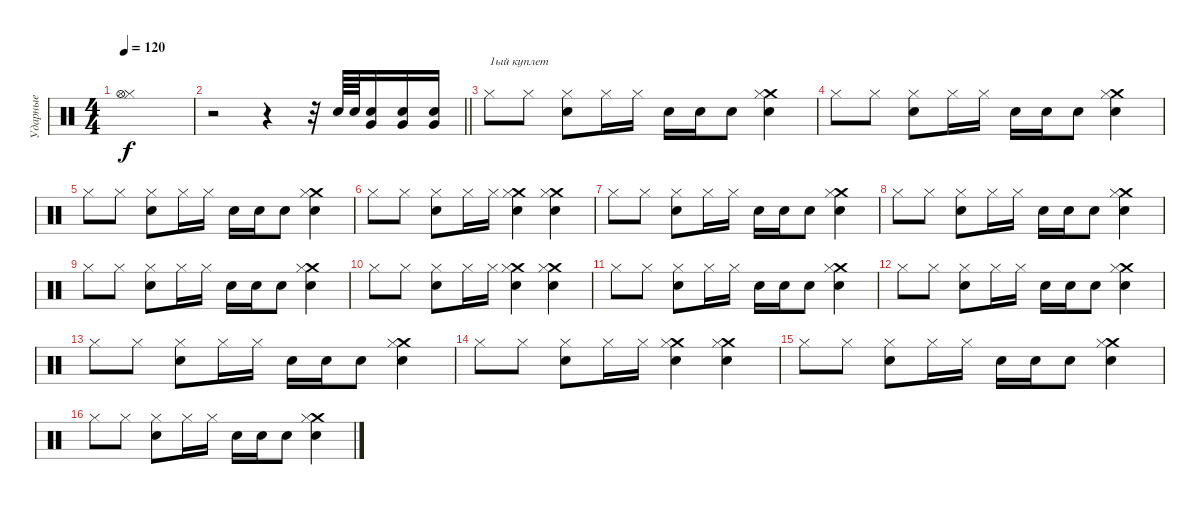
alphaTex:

\track ("Ударные" "Ударные") {instrument percussion}
\staff {score}
\articulation defaults
\ts (4 4)
\tempo 120
\clef neutral
\ks c
("Hi-Hat (closed)" "Hi-Hat (open)").1{dy f} |
\barLineRight lightlight
r.2 r.4 r.32 "Electric Snare (hit)".64 "Electric Snare (hit)".64 ("Electric Snare (hit)" "Very Low Tom (hit)").16 ("Electric Snare (hit)" "Very Low Tom (hit)").16 ("Electric Snare (hit)" "Very Low Tom (hit)").16 |
"Hi-Hat (closed)".8{txt "1ый куплет"} "Hi-Hat (closed)".8 ("Hi-Hat (closed)" "Electric Snare (hit)").8 "Hi-Hat (closed)".16 "Hi-Hat (closed)".16 "Electric Snare (hit)".16 "Electric Snare (hit)".16 "Electric Snare (hit)".8 ("Crash medium (hit)" "Electric Snare (hit)" "Hi-Hat (closed)").4 |
"Hi-Hat (closed)".8 "Hi-Hat (closed)".8 ("Hi-Hat (closed)" "Electric Snare (hit)").8 "Hi-Hat (closed)".16 "Hi-Hat (closed)".16 "Electric Snare (hit)".16 "Electric Snare (hit)".16 "Electric Snare (hit)".8 ("Crash medium (hit)" "Electric Snare (hit)" "Hi-Hat (closed)").4 |
"Hi-Hat (closed)".8 "Hi-Hat (closed)".8 ("Hi-Hat (closed)" "Electric Snare (hit)").8 "Hi-Hat (closed)".16 "Hi-Hat (closed)".16 "Electric Snare (hit)".16 "Electric Snare (hit)".16 "Electric Snare (hit)".8 ("Crash medium (hit)" "Electric Snare (hit)" "Hi-Hat (closed)").4 |
"Hi-Hat (closed)".8 "Hi-Hat (closed)".8 ("Hi-Hat (closed)" "Electric Snare (hit)").8 "Hi-Hat (closed)".16 "Hi-Hat (closed)".16 ("Crash medium (hit)" "Electric Snare (hit)" "Hi-Hat (closed)").4 ("Crash medium (hit)" "Electric Snare (hit)" "Hi-Hat (closed)").4 |
"Hi-Hat (closed)".8 "Hi-Hat (closed)".8 ("Hi-Hat (closed)" "Electric Snare (hit)").8 "Hi-Hat (closed)".16 "Hi-Hat (closed)".16 "Electric Snare (hit)".16 "Electric Snare (hit)".16 "Electric Snare (hit)".8 ("Crash medium (hit)" "Electric Snare (hit)" "Hi-Hat (closed)").4 |
"Hi-Hat (closed)".8 "Hi-Hat (closed)".8 ("Hi-Hat (closed)" "Electric Snare (hit)").8 "Hi-Hat (closed)".16 "Hi-Hat (closed)".16 "Electric Snare (hit)".16 "Electric Snare (hit)".16 "Electric Snare (hit)".8 ("Crash medium (hit)" "Electric Snare (hit)" "Hi-Hat (closed)").4 |
"Hi-Hat (closed)".8 "Hi-Hat (closed)".8 ("Hi-Hat (closed)" "Electric Snare (hit)").8 "Hi-Hat (closed)".16 "Hi-Hat (closed)".16 "Electric Snare (hit)".16 "Electric Snare (hit)".16 "Electric Snare (hit)".8 ("Crash medium (hit)" "Electric Snare (hit)" "Hi-Hat (closed)").4 |
"Hi-Hat (closed)".8 "Hi-Hat (closed)".8 ("Hi-Hat (closed)" "Electric Snare (hit)").8 "Hi-Hat (closed)".16 "Hi-Hat (closed)".16 ("Crash medium (hit)" "Electric Snare (hit)" "Hi-Hat (closed)").4 ("Crash medium (hit)" "Electric Snare (hit)" "Hi-Hat (closed)").4 |
"Hi-Hat (closed)".8 "Hi-Hat (closed)".8 ("Hi-Hat (closed)" "Electric Snare (hit)").8 "Hi-Hat (closed)".16 "Hi-Hat (closed)".16 "Electric Snare (hit)".16 "Electric Snare (hit)".16 "Electric Snare (hit)".8 ("Crash medium (hit)" "Electric Snare (hit)" "Hi-Hat (closed)").4 |
"Hi-Hat (closed)".8 "Hi-Hat (closed)".8 ("Hi-Hat (closed)" "Electric Snare (hit)").8 "Hi-Hat (closed)".16 "Hi-Hat (closed)".16 "Electric Snare (hit)".16 "Electric Snare (hit)".16 "Electric Snare (hit)".8 ("Crash medium (hit)" "Electric Snare (hit)" "Hi-Hat (closed)").4 |
"Hi-Hat (closed)".8 "Hi-Hat (closed)".8 ("Hi-Hat (closed)" "Electric Snare (hit)").8 "Hi-Hat (closed)".16 "Hi-Hat (closed)".16 "Electric Snare (hit)".16 "Electric Snare (hit)".16 "Electric Snare (hit)".8 ("Crash medium (hit)" "Electric Snare (hit)" "Hi-Hat (closed)").4 |
"Hi-Hat (closed)".8 "Hi-Hat (closed)".8 ("Hi-Hat (closed)" "Electric Snare (hit)").8 "Hi-Hat (closed)".16 "Hi-Hat (closed)".16 ("Crash medium (hit)" "Electric Snare (hit)" "Hi-Hat (closed)").4 ("Crash medium (hit)" "Electric Snare (hit)" "Hi-Hat (closed)").4 |
"Hi-Hat (closed)".8 "Hi-Hat (closed)".8 ("Hi-Hat (closed)" "Electric Snare (hit)").8 "Hi-Hat (closed)".16 "Hi-Hat (closed)".16 "Electric Snare (hit)".16 "Electric Snare (hit)".16 "Electric Snare (hit)".8 ("Crash medium (hit)" "Electric Snare (hit)" "Hi-Hat (closed)").4 |
"Hi-Hat (closed)".8 "Hi-Hat (closed)".8 ("Hi-Hat (closed)" "Electric Snare (hit)").8 "Hi-Hat (closed)".16 "Hi-Hat (closed)".16 "Electric Snare (hit)".16 "Electric Snare (hit)".16 "Electric Snare (hit)".8 ("Crash medium (hit)" "Electric Snare (hit)" "Hi-Hat (closed)").4
